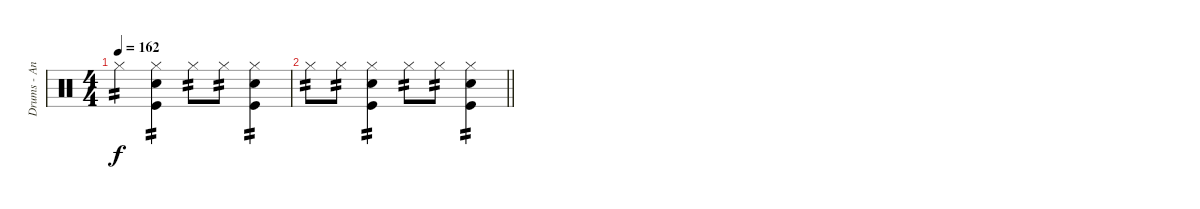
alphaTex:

\track ("Drums - Andriushkin" "Drums - An") {instrument percussion}
\staff {score}
\articulation defaults
\ts (4 4)
\tempo 162
\clef neutral
\ks c "Hi-Hat (closed)".4{tp 2 dy f}
("Hi-Hat (closed)" "Electric Snare (hit)" "Kick (hit)").4{tp 2} "Hi-Hat (closed)".8{tp 2} "Hi-Hat (closed)".8{tp 2} ("Hi-Hat (closed)" "Electric Snare (hit)" "Kick (hit)").4{tp 2} |
\barLineRight lightlight "Hi-Hat (closed)".8{tp 2} "Hi-Hat (closed)".8{tp 2}
("Hi-Hat (closed)" "Electric Snare (hit)" "Kick (hit)").4{tp 2} "Hi-Hat (closed)".8{tp 2} "Hi-Hat (closed)".8{tp 2} ("Hi-Hat (closed)" "Electric Snare (hit)" "Kick (hit)").4{tp 2}
